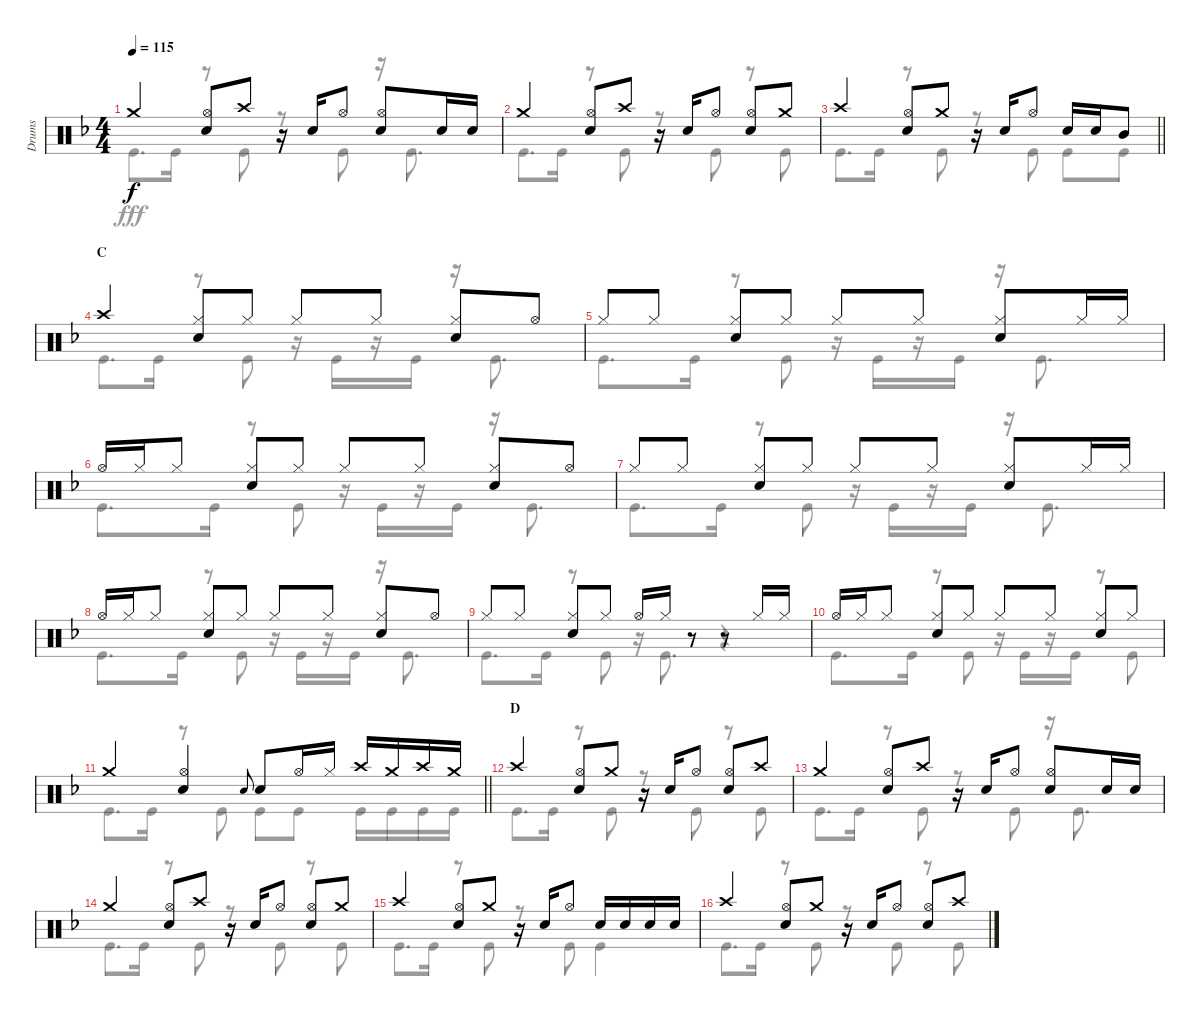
\track ("Drums" "Drums") {instrument percussion}
\staff {score}
\articulation defaults
\voice
\ts (4 4)
\tempo 115
\clef neutral
\ks f "Crash medium (hit)".4{dy f}
("Hi-Hat (open)" "Snare (hit) 2").8 "Crash high (hit)".8 r.16 "Snare (hit) 2".16 "Hi-Hat (open)".8 ("Hi-Hat (open)" "Snare (hit) 2").8 "Snare (hit) 2".16 "Snare (hit) 2".16 |
"Crash medium (hit)".4 ("Hi-Hat (open)" "Snare (hit) 2").8 "Crash high (hit)".8 r.16 "Snare (hit) 2".16 "Hi-Hat (open)".8 ("Hi-Hat (open)" "Snare (hit) 2").8 "Crash medium (hit)".8 |
\barLineRight lightlight "Crash high (hit)".4
("Hi-Hat (open)" "Snare (hit) 2").8 "Crash medium (hit)".8 r.16 "Snare (hit) 2".16 "Hi-Hat (open)".8 "Snare (hit) 2".16 "Snare (hit) 2".16 "Mid Tom (hit)".8 |
\section ("" "C")
"Crash high (hit)".4 ("Hi-Hat (closed)" "Snare (hit) 2").8 "Hi-Hat (closed)".8 "Hi-Hat (closed)".8 "Hi-Hat (closed)".8 ("Hi-Hat (closed)" "Snare (hit) 2").8 "Hi-Hat (open)".8 |
"Hi-Hat (closed)".8 "Hi-Hat (closed)".8 ("Hi-Hat (closed)" "Snare (hit) 2").8 "Hi-Hat (closed)".8 "Hi-Hat (closed)".8 "Hi-Hat (closed)".8 ("Hi-Hat (closed)" "Snare (hit) 2").8 "Hi-Hat (closed)".16 "Hi-Hat (closed)".16 |
"Hi-Hat (open)".16 "Hi-Hat (closed)".16 "Hi-Hat (closed)".8 ("Hi-Hat (closed)" "Snare (hit) 2").8 "Hi-Hat (closed)".8 "Hi-Hat (closed)".8 "Hi-Hat (closed)".8 ("Hi-Hat (closed)" "Snare (hit) 2").8 "Hi-Hat (open)".8 |
"Hi-Hat (closed)".8 "Hi-Hat (closed)".8 ("Hi-Hat (closed)" "Snare (hit) 2").8 "Hi-Hat (closed)".8 "Hi-Hat (closed)".8 "Hi-Hat (closed)".8 ("Hi-Hat (closed)" "Snare (hit) 2").8 "Hi-Hat (closed)".16 "Hi-Hat (closed)".16 |
"Hi-Hat (open)".16 "Hi-Hat (closed)".16 "Hi-Hat (closed)".8 ("Hi-Hat (closed)" "Snare (hit) 2").8 "Hi-Hat (closed)".8 "Hi-Hat (closed)".8 "Hi-Hat (closed)".8 ("Hi-Hat (closed)" "Snare (hit) 2").8 "Hi-Hat (open)".8 |
"Hi-Hat (closed)".8 "Hi-Hat (closed)".8 ("Hi-Hat (closed)" "Snare (hit) 2").8 "Hi-Hat (closed)".8 "Hi-Hat (open)".16 "Hi-Hat (closed)".16 r.8 r.8 "Hi-Hat (closed)".16 "Hi-Hat (closed)".16 |
"Hi-Hat (open)".16 "Hi-Hat (closed)".16 "Hi-Hat (closed)".8 ("Hi-Hat (closed)" "Snare (hit) 2").8 "Hi-Hat (closed)".8 "Hi-Hat (closed)".8 "Hi-Hat (closed)".8 ("Hi-Hat (closed)" "Snare (hit) 2").8 "Hi-Hat (closed)".8 |
\barLineRight lightlight "Crash medium (hit)".4
("Hi-Hat (open)" "Snare (hit) 2").4 "Snare (hit) 2".8{gr onbeat} "Snare (hit) 2".8 "Hi-Hat (open)".16 "Hi-Hat (closed)".16 "Crash high (hit)".16 "Crash medium (hit)".16 "Crash high (hit)".16 "Crash medium (hit)".16 |
\section ("" "D")
"Crash high (hit)".4 ("Hi-Hat (open)" "Snare (hit) 2").8 "Crash medium (hit)".8 r.16 "Snare (hit) 2".16 "Hi-Hat (open)".8 ("Hi-Hat (open)" "Snare (hit) 2").8 "Crash high (hit)".8 |
"Crash medium (hit)".4 ("Hi-Hat (open)" "Snare (hit) 2").8 "Crash high (hit)".8 r.16 "Snare (hit) 2".16 "Hi-Hat (open)".8 ("Hi-Hat (open)" "Snare (hit) 2").8 "Snare (hit) 2".16 "Snare (hit) 2".16 |
"Crash medium (hit)".4 ("Hi-Hat (open)" "Snare (hit) 2").8 "Crash high (hit)".8 r.16 "Snare (hit) 2".16 "Hi-Hat (open)".8 ("Hi-Hat (open)" "Snare (hit) 2").8 "Crash medium (hit)".8 |
"Crash high (hit)".4 ("Hi-Hat (open)" "Snare (hit) 2").8 "Crash medium (hit)".8 r.16 "Snare (hit) 2".16 "Hi-Hat (open)".8 "Snare (hit) 2".16 "Snare (hit) 2".16 "Snare (hit) 2".16 "Snare (hit) 2".16 |
"Crash high (hit)".4 ("Hi-Hat (open)" "Snare (hit) 2").8 "Crash medium (hit)".8 r.16 "Snare (hit) 2".16 "Hi-Hat (open)".8 ("Hi-Hat (open)" "Snare (hit) 2").8 "Crash high (hit)".8
\voice
\clef neutral
\ottava regular
\simile none
\ks f "Kick (hit)".8{d dy fff} "Kick (hit)".16
r.8 "Kick (hit)".8 r.8 "Kick (hit)".8 r.16 "Kick (hit)".8{d} |
"Kick (hit)".8{d} "Kick (hit)".16 r.8 "Kick (hit)".8 r.8 "Kick (hit)".8 r.8 "Kick (hit)".8 |
\barLineRight lightlight "Kick (hit)".8{d} "Kick (hit)".16
r.8 "Kick (hit)".8 r.8 "Kick (hit)".8 "Kick (hit)".8 "Kick (hit)".8 |
"Kick (hit)".8{d} "Kick (hit)".16 r.8 "Kick (hit)".8 r.16 "Kick (hit)".16 r.16 "Kick (hit)".16 r.16 "Kick (hit)".8{d} |
"Kick (hit)".8{d} "Kick (hit)".16 r.8 "Kick (hit)".8 r.16 "Kick (hit)".16 r.16 "Kick (hit)".16 r.16 "Kick (hit)".8{d} |
"Kick (hit)".8{d} "Kick (hit)".16 r.8 "Kick (hit)".8 r.16 "Kick (hit)".16 r.16 "Kick (hit)".16 r.16 "Kick (hit)".8{d} |
"Kick (hit)".8{d} "Kick (hit)".16 r.8 "Kick (hit)".8 r.16 "Kick (hit)".16 r.16 "Kick (hit)".16 r.16 "Kick (hit)".8{d} |
"Kick (hit)".8{d} "Kick (hit)".16 r.8 "Kick (hit)".8 r.16 "Kick (hit)".16 r.16 "Kick (hit)".16 r.16 "Kick (hit)".8{d} |
"Kick (hit)".8{d} "Kick (hit)".16 r.8 "Kick (hit)".8 r.16 "Kick (hit)".8{d} r.4 |
"Kick (hit)".8{d} "Kick (hit)".16 r.8 "Kick (hit)".8 r.16 "Kick (hit)".16 r.16 "Kick (hit)".16 r.8 "Kick (hit)".8 |
\barLineRight lightlight "Kick (hit)".8{d} "Kick (hit)".16
r.8 "Kick (hit)".8 "Kick (hit)".8 "Kick (hit)".8 "Kick (hit)".16 "Kick (hit)".16 "Kick (hit)".16 "Kick (hit)".16 |
"Kick (hit)".8{d} "Kick (hit)".16 r.8 "Kick (hit)".8 r.8 "Kick (hit)".8 r.8 "Kick (hit)".8 |
"Kick (hit)".8{d} "Kick (hit)".16 r.8 "Kick (hit)".8 r.8 "Kick (hit)".8 r.16 "Kick (hit)".8{d} |
"Kick (hit)".8{d} "Kick (hit)".16 r.8 "Kick (hit)".8 r.8 "Kick (hit)".8 r.8 "Kick (hit)".8 |
"Kick (hit)".8{d} "Kick (hit)".16 r.8 "Kick (hit)".8 r.8 "Kick (hit)".8 "Kick (hit)".4 |
"Kick (hit)".8{d} "Kick (hit)".16 r.8 "Kick (hit)".8 r.8 "Kick (hit)".8 r.8 "Kick (hit)".8
